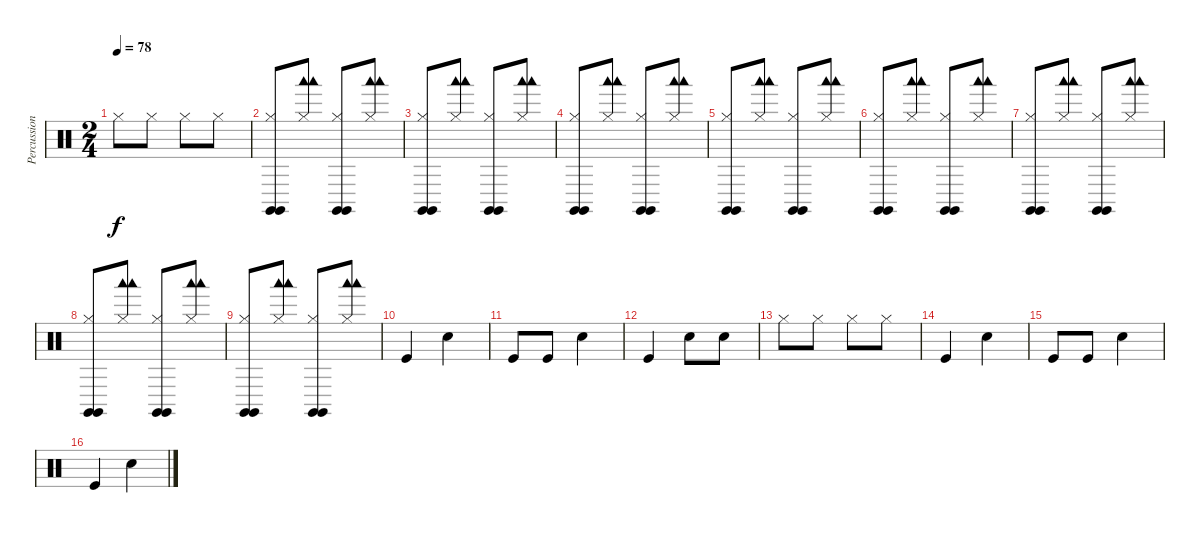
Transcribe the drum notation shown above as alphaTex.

\track ("Percussion" "Percussion") {instrument percussion}
\staff {score}
\articulation defaults
\ts (2 4)
\tempo 78
\clef neutral
\ks c "Hi-Hat (closed)".8{dy f} "Hi-Hat (closed)".8 "Hi-Hat (closed)".8 "Hi-Hat (closed)".8
|
("Hi-Hat (closed)" "Claves (hit)" "Claves (hit)").8 ("Hi-Hat (closed)" "Woodblock low (hit)" "Woodblock low (hit)").8 ("Hi-Hat (closed)" "Claves (hit)" "Claves (hit)").8 ("Hi-Hat (closed)" "Woodblock low (hit)" "Woodblock low (hit)").8 |
("Hi-Hat (closed)" "Claves (hit)" "Claves (hit)").8 ("Hi-Hat (closed)" "Woodblock low (hit)" "Woodblock low (hit)").8 ("Hi-Hat (closed)" "Claves (hit)" "Claves (hit)").8 ("Hi-Hat (closed)" "Woodblock low (hit)" "Woodblock low (hit)").8 |
("Hi-Hat (closed)" "Claves (hit)" "Claves (hit)").8 ("Hi-Hat (closed)" "Woodblock low (hit)" "Woodblock low (hit)").8 ("Hi-Hat (closed)" "Claves (hit)" "Claves (hit)").8 ("Hi-Hat (closed)" "Woodblock low (hit)" "Woodblock low (hit)").8 |
("Hi-Hat (closed)" "Claves (hit)" "Claves (hit)").8 ("Hi-Hat (closed)" "Woodblock low (hit)" "Woodblock low (hit)").8 ("Hi-Hat (closed)" "Claves (hit)" "Claves (hit)").8 ("Hi-Hat (closed)" "Woodblock low (hit)" "Woodblock low (hit)").8 |
("Hi-Hat (closed)" "Claves (hit)" "Claves (hit)").8 ("Hi-Hat (closed)" "Woodblock low (hit)" "Woodblock low (hit)").8 ("Hi-Hat (closed)" "Claves (hit)" "Claves (hit)").8 ("Hi-Hat (closed)" "Woodblock low (hit)" "Woodblock low (hit)").8 |
("Hi-Hat (closed)" "Claves (hit)" "Claves (hit)").8 ("Hi-Hat (closed)" "Woodblock low (hit)" "Woodblock low (hit)").8 ("Hi-Hat (closed)" "Claves (hit)" "Claves (hit)").8 ("Hi-Hat (closed)" "Woodblock low (hit)" "Woodblock low (hit)").8 |
("Hi-Hat (closed)" "Claves (hit)" "Claves (hit)").8 ("Hi-Hat (closed)" "Woodblock low (hit)" "Woodblock low (hit)").8 ("Hi-Hat (closed)" "Claves (hit)" "Claves (hit)").8 ("Hi-Hat (closed)" "Woodblock low (hit)" "Woodblock low (hit)").8 |
("Hi-Hat (closed)" "Claves (hit)" "Claves (hit)").8 ("Hi-Hat (closed)" "Woodblock low (hit)" "Woodblock low (hit)").8 ("Hi-Hat (closed)" "Claves (hit)" "Claves (hit)").8 ("Hi-Hat (closed)" "Woodblock low (hit)" "Woodblock low (hit)").8 |
"Kick (hit)".4 "Snare (hit) 2".4 |
"Kick (hit)".8 "Kick (hit)".8 "Snare (hit) 2".4 |
"Kick (hit)".4 "Snare (hit) 2".8 "Snare (hit) 2".8 |
"Hi-Hat (closed)".8 "Hi-Hat (closed)".8 "Hi-Hat (closed)".8 "Hi-Hat (closed)".8 |
"Kick (hit)".4 "Metronome (bell)".4 |
"Kick (hit)".8 "Kick (hit)".8 "Metronome (bell)".4 |
"Kick (hit)".4 "Metronome (bell)".4
